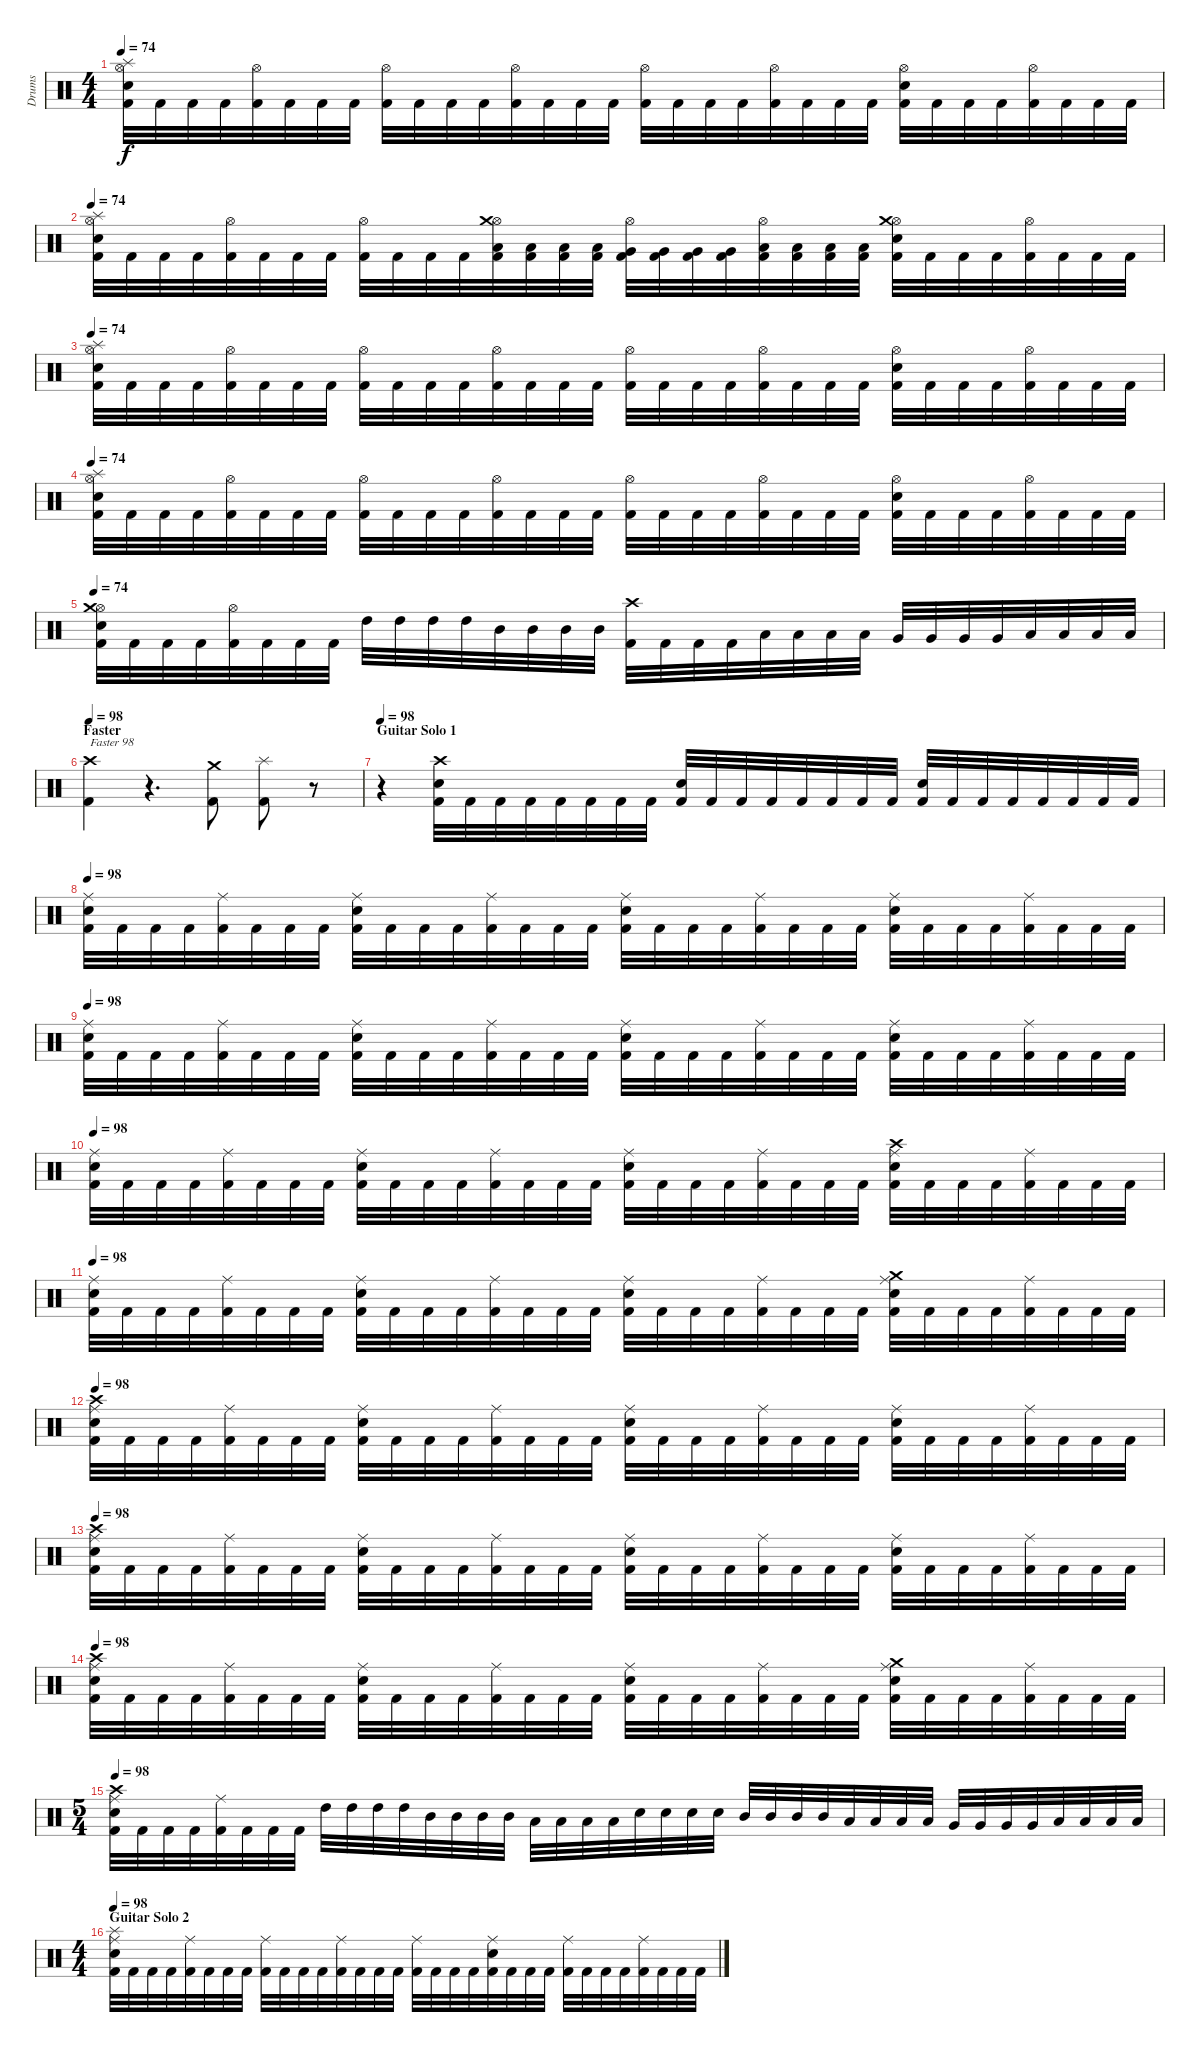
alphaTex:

\track ("Drums" "Drums") {instrument percussion}
\staff {score}
\articulation defaults
\ts (4 4)
\tempo 74
\clef neutral
\ks c
("Hi-Hat (open)" "Kick (hit) 2" "Splash (hit)" "Electric Snare (hit)").32{dy f} "Kick (hit) 2".32 "Kick (hit) 2".32 "Kick (hit) 2".32 ("Hi-Hat (open)" "Kick (hit) 2").32 "Kick (hit) 2".32 "Kick (hit) 2".32 "Kick (hit) 2".32 ("Hi-Hat (open)" "Kick (hit) 2").32 "Kick (hit) 2".32 "Kick (hit) 2".32 "Kick (hit) 2".32 ("Hi-Hat (open)" "Kick (hit) 2").32 "Kick (hit) 2".32 "Kick (hit) 2".32 "Kick (hit) 2".32 ("Hi-Hat (open)" "Kick (hit) 2").32 "Kick (hit) 2".32 "Kick (hit) 2".32 "Kick (hit) 2".32 ("Hi-Hat (open)" "Kick (hit) 2").32 "Kick (hit) 2".32 "Kick (hit) 2".32 "Kick (hit) 2".32 ("Hi-Hat (open)" "Electric Snare (hit)" "Kick (hit) 2").32 "Kick (hit) 2".32 "Kick (hit) 2".32 "Kick (hit) 2".32 ("Hi-Hat (open)" "Kick (hit) 2").32 "Kick (hit) 2".32 "Kick (hit) 2".32 "Kick (hit) 2".32 |
\tempo 74
("Electric Snare (hit)" "Splash (hit)" "Kick (hit) 2" "Hi-Hat (open)").32 "Kick (hit) 2".32 "Kick (hit) 2".32 "Kick (hit) 2".32 ("Hi-Hat (open)" "Kick (hit) 2").32 "Kick (hit) 2".32 "Kick (hit) 2".32 "Kick (hit) 2".32 ("Hi-Hat (open)" "Kick (hit) 2").32 "Kick (hit) 2".32 "Kick (hit) 2".32 "Kick (hit) 2".32 ("Hi-Hat (open)" "Kick (hit) 2" "Low Tom (hit)" "Crash medium (hit)").32 ("Kick (hit) 2" "Low Tom (hit)").32 ("Kick (hit) 2" "Low Tom (hit)").32 ("Kick (hit) 2" "Low Tom (hit)").32 ("Hi-Hat (open)" "Kick (hit) 2" "Very Low Tom (hit)").32 ("Kick (hit) 2" "Very Low Tom (hit)").32 ("Kick (hit) 2" "Very Low Tom (hit)").32 ("Kick (hit) 2" "Very Low Tom (hit)").32 ("Hi-Hat (open)" "Kick (hit) 2" "Low Floor Tom (hit)").32 ("Kick (hit) 2" "Low Floor Tom (hit)").32 ("Kick (hit) 2" "Low Floor Tom (hit)").32 ("Kick (hit) 2" "Low Floor Tom (hit)").32 ("Hi-Hat (open)" "Electric Snare (hit)" "Kick (hit) 2" "Crash medium (hit)").32 "Kick (hit) 2".32 "Kick (hit) 2".32 "Kick (hit) 2".32 ("Hi-Hat (open)" "Kick (hit) 2").32 "Kick (hit) 2".32 "Kick (hit) 2".32 "Kick (hit) 2".32 |
\tempo 74
("Electric Snare (hit)" "Splash (hit)" "Kick (hit) 2" "Hi-Hat (open)").32 "Kick (hit) 2".32 "Kick (hit) 2".32 "Kick (hit) 2".32 ("Hi-Hat (open)" "Kick (hit) 2").32 "Kick (hit) 2".32 "Kick (hit) 2".32 "Kick (hit) 2".32 ("Hi-Hat (open)" "Kick (hit) 2").32 "Kick (hit) 2".32 "Kick (hit) 2".32 "Kick (hit) 2".32 ("Hi-Hat (open)" "Kick (hit) 2").32 "Kick (hit) 2".32 "Kick (hit) 2".32 "Kick (hit) 2".32 ("Hi-Hat (open)" "Kick (hit) 2").32 "Kick (hit) 2".32 "Kick (hit) 2".32 "Kick (hit) 2".32 ("Hi-Hat (open)" "Kick (hit) 2").32 "Kick (hit) 2".32 "Kick (hit) 2".32 "Kick (hit) 2".32 ("Hi-Hat (open)" "Electric Snare (hit)" "Kick (hit) 2").32 "Kick (hit) 2".32 "Kick (hit) 2".32 "Kick (hit) 2".32 ("Hi-Hat (open)" "Kick (hit) 2").32 "Kick (hit) 2".32 "Kick (hit) 2".32 "Kick (hit) 2".32 |
\tempo 74
("Hi-Hat (open)" "Kick (hit) 2" "Splash (hit)" "Electric Snare (hit)").32 "Kick (hit) 2".32 "Kick (hit) 2".32 "Kick (hit) 2".32 ("Hi-Hat (open)" "Kick (hit) 2").32 "Kick (hit) 2".32 "Kick (hit) 2".32 "Kick (hit) 2".32 ("Hi-Hat (open)" "Kick (hit) 2").32 "Kick (hit) 2".32 "Kick (hit) 2".32 "Kick (hit) 2".32 ("Hi-Hat (open)" "Kick (hit) 2").32 "Kick (hit) 2".32 "Kick (hit) 2".32 "Kick (hit) 2".32 ("Hi-Hat (open)" "Kick (hit) 2").32 "Kick (hit) 2".32 "Kick (hit) 2".32 "Kick (hit) 2".32 ("Hi-Hat (open)" "Kick (hit) 2").32 "Kick (hit) 2".32 "Kick (hit) 2".32 "Kick (hit) 2".32 ("Hi-Hat (open)" "Electric Snare (hit)" "Kick (hit) 2").32 "Kick (hit) 2".32 "Kick (hit) 2".32 "Kick (hit) 2".32 ("Hi-Hat (open)" "Kick (hit) 2").32 "Kick (hit) 2".32 "Kick (hit) 2".32 "Kick (hit) 2".32 |
\tempo 74
("Electric Snare (hit)" "Kick (hit) 2" "Hi-Hat (open)" "Crash medium (hit)").32 "Kick (hit) 2".32 "Kick (hit) 2".32 "Kick (hit) 2".32 ("Hi-Hat (open)" "Kick (hit) 2").32 "Kick (hit) 2".32 "Kick (hit) 2".32 "Kick (hit) 2".32 "High Tom (hit)".32 "High Tom (hit)".32 "High Tom (hit)".32 "High Tom (hit)".32 "Mid Tom (hit)".32 "Mid Tom (hit)".32 "Mid Tom (hit)".32 "Mid Tom (hit)".32 ("Crash high (hit)" "Kick (hit) 2").32 "Kick (hit) 2".32 "Kick (hit) 2".32 "Kick (hit) 2".32 "Low Tom (hit)".32 "Low Tom (hit)".32 "Low Tom (hit)".32 "Low Tom (hit)".32 "Very Low Tom (hit)".32 "Very Low Tom (hit)".32 "Very Low Tom (hit)".32 "Very Low Tom (hit)".32 "Low Floor Tom (hit)".32 "Low Floor Tom (hit)".32 "Low Floor Tom (hit)".32 "Low Floor Tom (hit)".32 |
\section ("" "Faster")
\tempo 98
("Crash high (hit)" "Kick (hit) 2").4{txt "Faster 98"} r.4{d} ("Kick (hit) 2" "Crash medium (hit)").8 ("Kick (hit) 2" "Splash (hit)").8 r.8 |
\section ("" "Guitar Solo 1")
\tempo 98
r.4 ("Crash high (hit)" "Kick (hit) 2" "Electric Snare (hit)").32 "Kick (hit) 2".32 "Kick (hit) 2".32 "Kick (hit) 2".32 "Kick (hit) 2".32 "Kick (hit) 2".32 "Kick (hit) 2".32 "Kick (hit) 2".32 ("Kick (hit) 2" "Electric Snare (hit)").32 "Kick (hit) 2".32 "Kick (hit) 2".32 "Kick (hit) 2".32 "Kick (hit) 2".32 "Kick (hit) 2".32 "Kick (hit) 2".32 "Kick (hit) 2".32 ("Kick (hit) 2" "Electric Snare (hit)").32 "Kick (hit) 2".32 "Kick (hit) 2".32 "Kick (hit) 2".32 "Kick (hit) 2".32 "Kick (hit) 2".32 "Kick (hit) 2".32 "Kick (hit) 2".32 |
\tempo 98
("Electric Snare (hit)" "Kick (hit) 2" "Ride (middle)").32 "Kick (hit) 2".32 "Kick (hit) 2".32 "Kick (hit) 2".32 ("Kick (hit) 2" "Ride (middle)").32 "Kick (hit) 2".32 "Kick (hit) 2".32 "Kick (hit) 2".32 ("Ride (middle)" "Kick (hit) 2" "Electric Snare (hit)").32 "Kick (hit) 2".32 "Kick (hit) 2".32 "Kick (hit) 2".32 ("Kick (hit) 2" "Ride (middle)").32 "Kick (hit) 2".32 "Kick (hit) 2".32 "Kick (hit) 2".32 ("Ride (middle)" "Kick (hit) 2" "Electric Snare (hit)").32 "Kick (hit) 2".32 "Kick (hit) 2".32 "Kick (hit) 2".32 ("Kick (hit) 2" "Ride (middle)").32 "Kick (hit) 2".32 "Kick (hit) 2".32 "Kick (hit) 2".32 ("Ride (middle)" "Kick (hit) 2" "Electric Snare (hit)").32 "Kick (hit) 2".32 "Kick (hit) 2".32 "Kick (hit) 2".32 ("Kick (hit) 2" "Ride (middle)").32 "Kick (hit) 2".32 "Kick (hit) 2".32 "Kick (hit) 2".32 |
\tempo 98
("Ride (middle)" "Kick (hit) 2" "Electric Snare (hit)").32 "Kick (hit) 2".32 "Kick (hit) 2".32 "Kick (hit) 2".32 ("Kick (hit) 2" "Ride (middle)").32 "Kick (hit) 2".32 "Kick (hit) 2".32 "Kick (hit) 2".32 ("Ride (middle)" "Kick (hit) 2" "Electric Snare (hit)").32 "Kick (hit) 2".32 "Kick (hit) 2".32 "Kick (hit) 2".32 ("Kick (hit) 2" "Ride (middle)").32 "Kick (hit) 2".32 "Kick (hit) 2".32 "Kick (hit) 2".32 ("Ride (middle)" "Kick (hit) 2" "Electric Snare (hit)").32 "Kick (hit) 2".32 "Kick (hit) 2".32 "Kick (hit) 2".32 ("Kick (hit) 2" "Ride (middle)").32 "Kick (hit) 2".32 "Kick (hit) 2".32 "Kick (hit) 2".32 ("Ride (middle)" "Kick (hit) 2" "Electric Snare (hit)").32 "Kick (hit) 2".32 "Kick (hit) 2".32 "Kick (hit) 2".32 ("Kick (hit) 2" "Ride (middle)").32 "Kick (hit) 2".32 "Kick (hit) 2".32 "Kick (hit) 2".32 |
\tempo 98
("Ride (middle)" "Kick (hit) 2" "Electric Snare (hit)").32 "Kick (hit) 2".32 "Kick (hit) 2".32 "Kick (hit) 2".32 ("Kick (hit) 2" "Ride (middle)").32 "Kick (hit) 2".32 "Kick (hit) 2".32 "Kick (hit) 2".32 ("Ride (middle)" "Kick (hit) 2" "Electric Snare (hit)").32 "Kick (hit) 2".32 "Kick (hit) 2".32 "Kick (hit) 2".32 ("Kick (hit) 2" "Ride (middle)").32 "Kick (hit) 2".32 "Kick (hit) 2".32 "Kick (hit) 2".32 ("Ride (middle)" "Kick (hit) 2" "Electric Snare (hit)").32 "Kick (hit) 2".32 "Kick (hit) 2".32 "Kick (hit) 2".32 ("Kick (hit) 2" "Ride (middle)").32 "Kick (hit) 2".32 "Kick (hit) 2".32 "Kick (hit) 2".32 ("Crash high (hit)" "Ride (middle)" "Kick (hit) 2" "Electric Snare (hit)").32 "Kick (hit) 2".32 "Kick (hit) 2".32 "Kick (hit) 2".32 ("Kick (hit) 2" "Ride (middle)").32 "Kick (hit) 2".32 "Kick (hit) 2".32 "Kick (hit) 2".32 |
\tempo 98
("Ride (middle)" "Kick (hit) 2" "Electric Snare (hit)").32 "Kick (hit) 2".32 "Kick (hit) 2".32 "Kick (hit) 2".32 ("Kick (hit) 2" "Ride (middle)").32 "Kick (hit) 2".32 "Kick (hit) 2".32 "Kick (hit) 2".32 ("Ride (middle)" "Kick (hit) 2" "Electric Snare (hit)").32 "Kick (hit) 2".32 "Kick (hit) 2".32 "Kick (hit) 2".32 ("Kick (hit) 2" "Ride (middle)").32 "Kick (hit) 2".32 "Kick (hit) 2".32 "Kick (hit) 2".32 ("Ride (middle)" "Kick (hit) 2" "Electric Snare (hit)").32 "Kick (hit) 2".32 "Kick (hit) 2".32 "Kick (hit) 2".32 ("Kick (hit) 2" "Ride (middle)").32 "Kick (hit) 2".32 "Kick (hit) 2".32 "Kick (hit) 2".32 ("Crash medium (hit)" "Ride (middle)" "Kick (hit) 2" "Electric Snare (hit)").32 "Kick (hit) 2".32 "Kick (hit) 2".32 "Kick (hit) 2".32 ("Kick (hit) 2" "Ride (middle)").32 "Kick (hit) 2".32 "Kick (hit) 2".32 "Kick (hit) 2".32 |
\tempo 98
("Crash high (hit)" "Ride (middle)" "Kick (hit) 2" "Electric Snare (hit)").32 "Kick (hit) 2".32 "Kick (hit) 2".32 "Kick (hit) 2".32 ("Kick (hit) 2" "Ride (middle)").32 "Kick (hit) 2".32 "Kick (hit) 2".32 "Kick (hit) 2".32 ("Ride (middle)" "Kick (hit) 2" "Electric Snare (hit)").32 "Kick (hit) 2".32 "Kick (hit) 2".32 "Kick (hit) 2".32 ("Kick (hit) 2" "Ride (middle)").32 "Kick (hit) 2".32 "Kick (hit) 2".32 "Kick (hit) 2".32 ("Ride (middle)" "Kick (hit) 2" "Electric Snare (hit)").32 "Kick (hit) 2".32 "Kick (hit) 2".32 "Kick (hit) 2".32 ("Kick (hit) 2" "Ride (middle)").32 "Kick (hit) 2".32 "Kick (hit) 2".32 "Kick (hit) 2".32 ("Ride (middle)" "Kick (hit) 2" "Electric Snare (hit)").32 "Kick (hit) 2".32 "Kick (hit) 2".32 "Kick (hit) 2".32 ("Kick (hit) 2" "Ride (middle)").32 "Kick (hit) 2".32 "Kick (hit) 2".32 "Kick (hit) 2".32 |
\tempo 98
("Crash high (hit)" "Ride (middle)" "Kick (hit) 2" "Electric Snare (hit)").32 "Kick (hit) 2".32 "Kick (hit) 2".32 "Kick (hit) 2".32 ("Kick (hit) 2" "Ride (middle)").32 "Kick (hit) 2".32 "Kick (hit) 2".32 "Kick (hit) 2".32 ("Ride (middle)" "Kick (hit) 2" "Electric Snare (hit)").32 "Kick (hit) 2".32 "Kick (hit) 2".32 "Kick (hit) 2".32 ("Kick (hit) 2" "Ride (middle)").32 "Kick (hit) 2".32 "Kick (hit) 2".32 "Kick (hit) 2".32 ("Ride (middle)" "Kick (hit) 2" "Electric Snare (hit)").32 "Kick (hit) 2".32 "Kick (hit) 2".32 "Kick (hit) 2".32 ("Kick (hit) 2" "Ride (middle)").32 "Kick (hit) 2".32 "Kick (hit) 2".32 "Kick (hit) 2".32 ("Ride (middle)" "Kick (hit) 2" "Electric Snare (hit)").32 "Kick (hit) 2".32 "Kick (hit) 2".32 "Kick (hit) 2".32 ("Kick (hit) 2" "Ride (middle)").32 "Kick (hit) 2".32 "Kick (hit) 2".32 "Kick (hit) 2".32 |
\tempo 98
("Electric Snare (hit)" "Kick (hit) 2" "Ride (middle)" "Crash high (hit)").32 "Kick (hit) 2".32 "Kick (hit) 2".32 "Kick (hit) 2".32 ("Kick (hit) 2" "Ride (middle)").32 "Kick (hit) 2".32 "Kick (hit) 2".32 "Kick (hit) 2".32 ("Ride (middle)" "Kick (hit) 2" "Electric Snare (hit)").32 "Kick (hit) 2".32 "Kick (hit) 2".32 "Kick (hit) 2".32 ("Kick (hit) 2" "Ride (middle)").32 "Kick (hit) 2".32 "Kick (hit) 2".32 "Kick (hit) 2".32 ("Ride (middle)" "Kick (hit) 2" "Electric Snare (hit)").32 "Kick (hit) 2".32 "Kick (hit) 2".32 "Kick (hit) 2".32 ("Kick (hit) 2" "Ride (middle)").32 "Kick (hit) 2".32 "Kick (hit) 2".32 "Kick (hit) 2".32 ("Ride (middle)" "Kick (hit) 2" "Electric Snare (hit)" "Crash medium (hit)").32 "Kick (hit) 2".32 "Kick (hit) 2".32 "Kick (hit) 2".32 ("Kick (hit) 2" "Ride (middle)").32 "Kick (hit) 2".32 "Kick (hit) 2".32 "Kick (hit) 2".32 |
\ts (5 4)
\tempo 98
("Crash high (hit)" "Electric Snare (hit)" "Ride (middle)" "Kick (hit) 2").32 "Kick (hit) 2".32 "Kick (hit) 2".32 "Kick (hit) 2".32 ("Ride (middle)" "Kick (hit) 2").32 "Kick (hit) 2".32 "Kick (hit) 2".32 "Kick (hit) 2".32 "High Tom (hit)".32 "High Tom (hit)".32 "High Tom (hit)".32 "High Tom (hit)".32 "Mid Tom (hit)".32 "Mid Tom (hit)".32 "Mid Tom (hit)".32 "Mid Tom (hit)".32 "Low Tom (hit)".32 "Low Tom (hit)".32 "Low Tom (hit)".32 "Low Tom (hit)".32 "Electric Snare (hit)".32 "Electric Snare (hit)".32 "Electric Snare (hit)".32 "Electric Snare (hit)".32 "Mid Tom (hit)".32 "Mid Tom (hit)".32 "Mid Tom (hit)".32 "Mid Tom (hit)".32 "Low Tom (hit)".32 "Low Tom (hit)".32 "Low Tom (hit)".32 "Low Tom (hit)".32 "Very Low Tom (hit)".32 "Very Low Tom (hit)".32 "Very Low Tom (hit)".32 "Very Low Tom (hit)".32 "Low Floor Tom (hit)".32 "Low Floor Tom (hit)".32 "Low Floor Tom (hit)".32 "Low Floor Tom (hit)".32 |
\ts (4 4)
\section ("" "Guitar Solo 2")
\tempo 98
("Kick (hit) 2" "Splash (hit)" "Electric Snare (hit)" "Ride (middle)").32 "Kick (hit) 2".32 "Kick (hit) 2".32 "Kick (hit) 2".32 ("Kick (hit) 2" "Ride (middle)").32 "Kick (hit) 2".32 "Kick (hit) 2".32 "Kick (hit) 2".32 ("Kick (hit) 2" "Ride (middle)").32 "Kick (hit) 2".32 "Kick (hit) 2".32 "Kick (hit) 2".32 ("Kick (hit) 2" "Ride (middle)").32 "Kick (hit) 2".32 "Kick (hit) 2".32 "Kick (hit) 2".32 ("Kick (hit) 2" "Ride (middle)").32 "Kick (hit) 2".32 "Kick (hit) 2".32 "Kick (hit) 2".32 ("Kick (hit) 2" "Ride (middle)" "Electric Snare (hit)").32 "Kick (hit) 2".32 "Kick (hit) 2".32 "Kick (hit) 2".32 ("Kick (hit) 2" "Ride (middle)").32 "Kick (hit) 2".32 "Kick (hit) 2".32 "Kick (hit) 2".32 ("Kick (hit) 2" "Ride (middle)").32 "Kick (hit) 2".32 "Kick (hit) 2".32 "Kick (hit) 2".32
